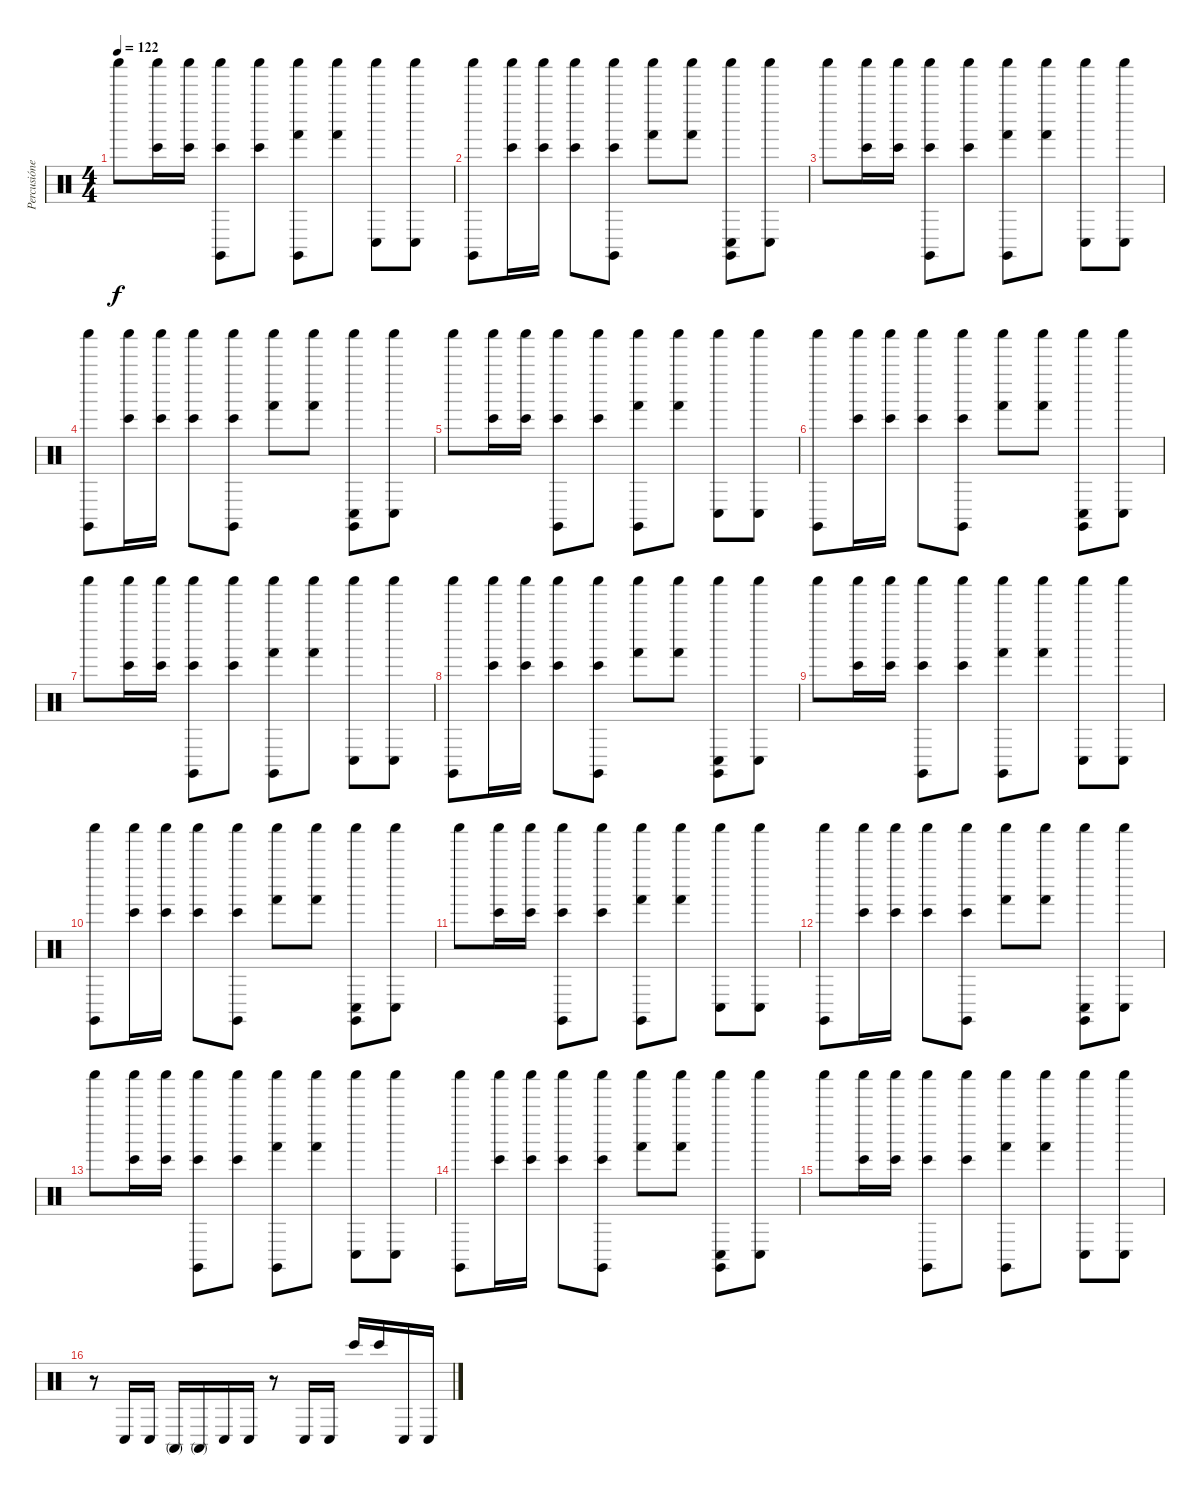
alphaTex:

\track ("Percusiónes" "Percusióne") {instrument percussion}
\staff {score}
\articulation defaults
\ts (4 4)
\tempo 122
\clef neutral
\ks c "Shaker (hit)".8{dy f}
("Bongo High (hit)" "Shaker (hit)").16 ("Bongo High (hit)" "Shaker (hit)").16 ("Bongo High (hit)" "Shaker (hit)" "Claves (hit)").8 ("Bongo High (hit)" "Shaker (hit)").8 ("Hand (hit)" "Shaker (hit)" "Claves (hit)").8 ("Hand (hit)" "Shaker (hit)").8 ("Conga low (hit)" "Shaker (hit)").8 ("Conga low (hit)" "Shaker (hit)").8 |
("Shaker (hit)" "Claves (hit)").8 ("Bongo High (hit)" "Shaker (hit)").16 ("Bongo High (hit)" "Shaker (hit)").16 ("Bongo High (hit)" "Shaker (hit)").8 ("Bongo High (hit)" "Shaker (hit)" "Claves (hit)").8 ("Hand (hit)" "Shaker (hit)").8 ("Hand (hit)" "Shaker (hit)").8 ("Conga low (hit)" "Shaker (hit)" "Claves (hit)").8 ("Conga low (hit)" "Shaker (hit)").8 |
"Shaker (hit)".8 ("Bongo High (hit)" "Shaker (hit)").16 ("Bongo High (hit)" "Shaker (hit)").16 ("Bongo High (hit)" "Shaker (hit)" "Claves (hit)").8 ("Bongo High (hit)" "Shaker (hit)").8 ("Hand (hit)" "Shaker (hit)" "Claves (hit)").8 ("Hand (hit)" "Shaker (hit)").8 ("Conga low (hit)" "Shaker (hit)").8 ("Conga low (hit)" "Shaker (hit)").8 |
("Shaker (hit)" "Claves (hit)").8 ("Bongo High (hit)" "Shaker (hit)").16 ("Bongo High (hit)" "Shaker (hit)").16 ("Bongo High (hit)" "Shaker (hit)").8 ("Bongo High (hit)" "Shaker (hit)" "Claves (hit)").8 ("Hand (hit)" "Shaker (hit)").8 ("Hand (hit)" "Shaker (hit)").8 ("Conga low (hit)" "Shaker (hit)" "Claves (hit)").8 ("Conga low (hit)" "Shaker (hit)").8 |
"Shaker (hit)".8 ("Bongo High (hit)" "Shaker (hit)").16 ("Bongo High (hit)" "Shaker (hit)").16 ("Bongo High (hit)" "Shaker (hit)" "Claves (hit)").8 ("Bongo High (hit)" "Shaker (hit)").8 ("Hand (hit)" "Shaker (hit)" "Claves (hit)").8 ("Hand (hit)" "Shaker (hit)").8 ("Conga low (hit)" "Shaker (hit)").8 ("Conga low (hit)" "Shaker (hit)").8 |
("Shaker (hit)" "Claves (hit)").8 ("Bongo High (hit)" "Shaker (hit)").16 ("Bongo High (hit)" "Shaker (hit)").16 ("Bongo High (hit)" "Shaker (hit)").8 ("Bongo High (hit)" "Shaker (hit)" "Claves (hit)").8 ("Hand (hit)" "Shaker (hit)").8 ("Hand (hit)" "Shaker (hit)").8 ("Conga low (hit)" "Shaker (hit)" "Claves (hit)").8 ("Conga low (hit)" "Shaker (hit)").8 |
"Shaker (hit)".8 ("Bongo High (hit)" "Shaker (hit)").16 ("Bongo High (hit)" "Shaker (hit)").16 ("Bongo High (hit)" "Shaker (hit)" "Claves (hit)").8 ("Bongo High (hit)" "Shaker (hit)").8 ("Hand (hit)" "Shaker (hit)" "Claves (hit)").8 ("Hand (hit)" "Shaker (hit)").8 ("Conga low (hit)" "Shaker (hit)").8 ("Conga low (hit)" "Shaker (hit)").8 |
("Shaker (hit)" "Claves (hit)").8 ("Bongo High (hit)" "Shaker (hit)").16 ("Bongo High (hit)" "Shaker (hit)").16 ("Bongo High (hit)" "Shaker (hit)").8 ("Bongo High (hit)" "Shaker (hit)" "Claves (hit)").8 ("Hand (hit)" "Shaker (hit)").8 ("Hand (hit)" "Shaker (hit)").8 ("Conga low (hit)" "Shaker (hit)" "Claves (hit)").8 ("Conga low (hit)" "Shaker (hit)").8 |
"Shaker (hit)".8 ("Bongo High (hit)" "Shaker (hit)").16 ("Bongo High (hit)" "Shaker (hit)").16 ("Bongo High (hit)" "Shaker (hit)" "Claves (hit)").8 ("Bongo High (hit)" "Shaker (hit)").8 ("Hand (hit)" "Shaker (hit)" "Claves (hit)").8 ("Hand (hit)" "Shaker (hit)").8 ("Conga low (hit)" "Shaker (hit)").8 ("Conga low (hit)" "Shaker (hit)").8 |
("Shaker (hit)" "Claves (hit)").8 ("Bongo High (hit)" "Shaker (hit)").16 ("Bongo High (hit)" "Shaker (hit)").16 ("Bongo High (hit)" "Shaker (hit)").8 ("Bongo High (hit)" "Shaker (hit)" "Claves (hit)").8 ("Hand (hit)" "Shaker (hit)").8 ("Hand (hit)" "Shaker (hit)").8 ("Conga low (hit)" "Shaker (hit)" "Claves (hit)").8 ("Conga low (hit)" "Shaker (hit)").8 |
"Shaker (hit)".8 ("Bongo High (hit)" "Shaker (hit)").16 ("Bongo High (hit)" "Shaker (hit)").16 ("Bongo High (hit)" "Shaker (hit)" "Claves (hit)").8 ("Bongo High (hit)" "Shaker (hit)").8 ("Hand (hit)" "Shaker (hit)" "Claves (hit)").8 ("Hand (hit)" "Shaker (hit)").8 ("Conga low (hit)" "Shaker (hit)").8 ("Conga low (hit)" "Shaker (hit)").8 |
("Shaker (hit)" "Claves (hit)").8 ("Bongo High (hit)" "Shaker (hit)").16 ("Bongo High (hit)" "Shaker (hit)").16 ("Bongo High (hit)" "Shaker (hit)").8 ("Bongo High (hit)" "Shaker (hit)" "Claves (hit)").8 ("Hand (hit)" "Shaker (hit)").8 ("Hand (hit)" "Shaker (hit)").8 ("Conga low (hit)" "Shaker (hit)" "Claves (hit)").8 ("Conga low (hit)" "Shaker (hit)").8 |
"Shaker (hit)".8 ("Bongo High (hit)" "Shaker (hit)").16 ("Bongo High (hit)" "Shaker (hit)").16 ("Bongo High (hit)" "Shaker (hit)" "Claves (hit)").8 ("Bongo High (hit)" "Shaker (hit)").8 ("Hand (hit)" "Shaker (hit)" "Claves (hit)").8 ("Hand (hit)" "Shaker (hit)").8 ("Conga low (hit)" "Shaker (hit)").8 ("Conga low (hit)" "Shaker (hit)").8 |
("Shaker (hit)" "Claves (hit)").8 ("Bongo High (hit)" "Shaker (hit)").16 ("Bongo High (hit)" "Shaker (hit)").16 ("Bongo High (hit)" "Shaker (hit)").8 ("Bongo High (hit)" "Shaker (hit)" "Claves (hit)").8 ("Hand (hit)" "Shaker (hit)").8 ("Hand (hit)" "Shaker (hit)").8 ("Conga low (hit)" "Shaker (hit)" "Claves (hit)").8 ("Conga low (hit)" "Shaker (hit)").8 |
"Shaker (hit)".8 ("Bongo High (hit)" "Shaker (hit)").16 ("Bongo High (hit)" "Shaker (hit)").16 ("Bongo High (hit)" "Shaker (hit)" "Claves (hit)").8 ("Bongo High (hit)" "Shaker (hit)").8 ("Hand (hit)" "Shaker (hit)" "Claves (hit)").8 ("Hand (hit)" "Shaker (hit)").8 ("Conga low (hit)" "Shaker (hit)").8 ("Conga low (hit)" "Shaker (hit)").8 |
r.8 "Conga low (hit)".16 "Conga low (hit)".16 "Conga high (mute)".16 "Conga high (mute)".16 "Conga low (hit)".16 "Conga low (hit)".16 r.8 "Conga low (hit)".16 "Conga low (hit)".16 "Bongo High (hit)".16 "Bongo High (hit)".16 "Conga low (hit)".16 "Conga low (hit)".16
